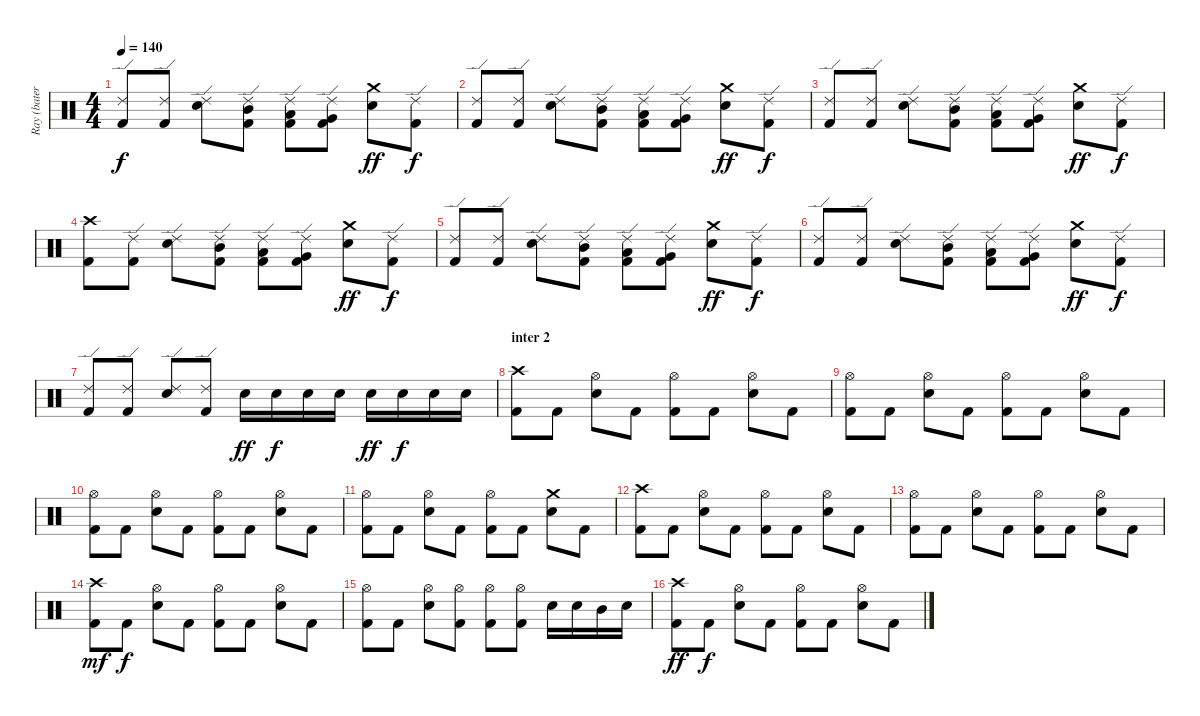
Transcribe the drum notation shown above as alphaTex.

\track ("Ray (batería)" "Ray (bater") {instrument percussion}
\staff {score}
\articulation defaults
\ts (4 4)
\tempo 140
\clef neutral
\ks c
("Ride (edge) 2" "Kick (hit) 2").8{dy f} ("Ride (edge) 2" "Kick (hit) 2").8 ("Ride (edge) 2" "Snare (hit) 2").8 ("Ride (edge) 2" "Mid Tom (hit)" "Kick (hit) 2").8 ("Ride (edge) 2" "Low Tom (hit)" "Kick (hit) 2").8 ("Ride (edge) 2" "Very Low Tom (hit)" "Kick (hit) 2").8 ("Crash medium (hit)" "Snare (hit) 2").8{dy ff} ("Ride (edge) 2" "Kick (hit) 2").8{dy f} |
("Ride (edge) 2" "Kick (hit) 2").8 ("Ride (edge) 2" "Kick (hit) 2").8 ("Ride (edge) 2" "Snare (hit) 2").8 ("Ride (edge) 2" "Mid Tom (hit)" "Kick (hit) 2").8 ("Ride (edge) 2" "Low Tom (hit)" "Kick (hit) 2").8 ("Ride (edge) 2" "Very Low Tom (hit)" "Kick (hit) 2").8 ("Crash medium (hit)" "Snare (hit) 2").8{dy ff} ("Ride (edge) 2" "Kick (hit) 2").8{dy f} |
("Ride (edge) 2" "Kick (hit) 2").8 ("Ride (edge) 2" "Kick (hit) 2").8 ("Ride (edge) 2" "Snare (hit) 2").8 ("Ride (edge) 2" "Mid Tom (hit)" "Kick (hit) 2").8 ("Ride (edge) 2" "Low Tom (hit)" "Kick (hit) 2").8 ("Ride (edge) 2" "Very Low Tom (hit)" "Kick (hit) 2").8 ("Crash medium (hit)" "Snare (hit) 2").8{dy ff} ("Ride (edge) 2" "Kick (hit) 2").8{dy f} |
("Crash high (hit)" "Kick (hit) 2").8 ("Ride (edge) 2" "Kick (hit) 2").8 ("Ride (edge) 2" "Snare (hit) 2").8 ("Ride (edge) 2" "Mid Tom (hit)" "Kick (hit) 2").8 ("Ride (edge) 2" "Low Tom (hit)" "Kick (hit) 2").8 ("Ride (edge) 2" "Very Low Tom (hit)" "Kick (hit) 2").8 ("Crash medium (hit)" "Snare (hit) 2").8{dy ff} ("Ride (edge) 2" "Kick (hit) 2").8{dy f} |
("Ride (edge) 2" "Kick (hit) 2").8 ("Ride (edge) 2" "Kick (hit) 2").8 ("Ride (edge) 2" "Snare (hit) 2").8 ("Ride (edge) 2" "Mid Tom (hit)" "Kick (hit) 2").8 ("Ride (edge) 2" "Low Tom (hit)" "Kick (hit) 2").8 ("Ride (edge) 2" "Very Low Tom (hit)" "Kick (hit) 2").8 ("Crash medium (hit)" "Snare (hit) 2").8{dy ff} ("Ride (edge) 2" "Kick (hit) 2").8{dy f} |
("Ride (edge) 2" "Kick (hit) 2").8 ("Ride (edge) 2" "Kick (hit) 2").8 ("Ride (edge) 2" "Snare (hit) 2").8 ("Ride (edge) 2" "Mid Tom (hit)" "Kick (hit) 2").8 ("Ride (edge) 2" "Low Tom (hit)" "Kick (hit) 2").8 ("Ride (edge) 2" "Very Low Tom (hit)" "Kick (hit) 2").8 ("Crash medium (hit)" "Snare (hit) 2").8{dy ff} ("Ride (edge) 2" "Kick (hit) 2").8{dy f} |
("Ride (edge) 2" "Kick (hit) 2").8 ("Ride (edge) 2" "Kick (hit) 2").8 ("Ride (edge) 2" "Snare (hit) 2").8 ("Ride (edge) 2" "Kick (hit) 2").8 "Snare (hit) 2".16{dy ff} "Snare (hit) 2".16{dy f} "Snare (hit) 2".16 "Snare (hit) 2".16 "Snare (hit) 2".16{dy ff} "Snare (hit) 2".16{dy f} "Snare (hit) 2".16 "Snare (hit) 2".16 |
\section ("" "inter 2")
("Crash high (hit)" "Kick (hit) 2").8 "Kick (hit) 2".8 ("Hi-Hat (open)" "Snare (hit) 2").8 "Kick (hit) 2".8 ("Hi-Hat (open)" "Kick (hit) 2").8 "Kick (hit) 2".8 ("Hi-Hat (open)" "Snare (hit) 2").8 "Kick (hit) 2".8 |
("Hi-Hat (open)" "Kick (hit) 2").8 "Kick (hit) 2".8 ("Hi-Hat (open)" "Snare (hit) 2").8 "Kick (hit) 2".8 ("Hi-Hat (open)" "Kick (hit) 2").8 "Kick (hit) 2".8 ("Hi-Hat (open)" "Snare (hit) 2").8 "Kick (hit) 2".8 |
("Hi-Hat (open)" "Kick (hit) 2").8 "Kick (hit) 2".8 ("Hi-Hat (open)" "Snare (hit) 2").8 "Kick (hit) 2".8 ("Hi-Hat (open)" "Kick (hit) 2").8 "Kick (hit) 2".8 ("Hi-Hat (open)" "Snare (hit) 2").8 "Kick (hit) 2".8 |
("Hi-Hat (open)" "Kick (hit) 2").8 "Kick (hit) 2".8 ("Hi-Hat (open)" "Snare (hit) 2").8 "Kick (hit) 2".8 ("Hi-Hat (open)" "Kick (hit) 2").8 "Kick (hit) 2".8 ("Crash medium (hit)" "Snare (hit) 2").8 "Kick (hit) 2".8 |
("Crash high (hit)" "Kick (hit) 2").8 "Kick (hit) 2".8 ("Hi-Hat (open)" "Snare (hit) 2").8 "Kick (hit) 2".8 ("Hi-Hat (open)" "Kick (hit) 2").8 "Kick (hit) 2".8 ("Hi-Hat (open)" "Snare (hit) 2").8 "Kick (hit) 2".8 |
("Hi-Hat (open)" "Kick (hit) 2").8 "Kick (hit) 2".8 ("Hi-Hat (open)" "Snare (hit) 2").8 "Kick (hit) 2".8 ("Hi-Hat (open)" "Kick (hit) 2").8 "Kick (hit) 2".8 ("Hi-Hat (open)" "Snare (hit) 2").8 "Kick (hit) 2".8 |
("Crash high (hit)" "Kick (hit) 2").8{dy mf} "Kick (hit) 2".8{dy f} ("Hi-Hat (open)" "Snare (hit) 2").8 "Kick (hit) 2".8 ("Hi-Hat (open)" "Kick (hit) 2").8 "Kick (hit) 2".8 ("Hi-Hat (open)" "Snare (hit) 2").8 "Kick (hit) 2".8 |
("Hi-Hat (open)" "Kick (hit) 2").8 "Kick (hit) 2".8 ("Hi-Hat (open)" "Snare (hit) 2").8 ("Hi-Hat (open)" "Kick (hit) 2").8 ("Hi-Hat (open)" "Kick (hit) 2").8 ("Hi-Hat (open)" "Kick (hit) 2").8 "Snare (hit) 2".16 "Snare (hit) 2".16 "Mid Tom (hit)".16 "Snare (hit) 2".16 |
("Crash high (hit)" "Kick (hit) 2").8{dy ff} "Kick (hit) 2".8{dy f} ("Hi-Hat (open)" "Snare (hit) 2").8 "Kick (hit) 2".8 ("Hi-Hat (open)" "Kick (hit) 2").8 "Kick (hit) 2".8 ("Hi-Hat (open)" "Snare (hit) 2").8 "Kick (hit) 2".8
